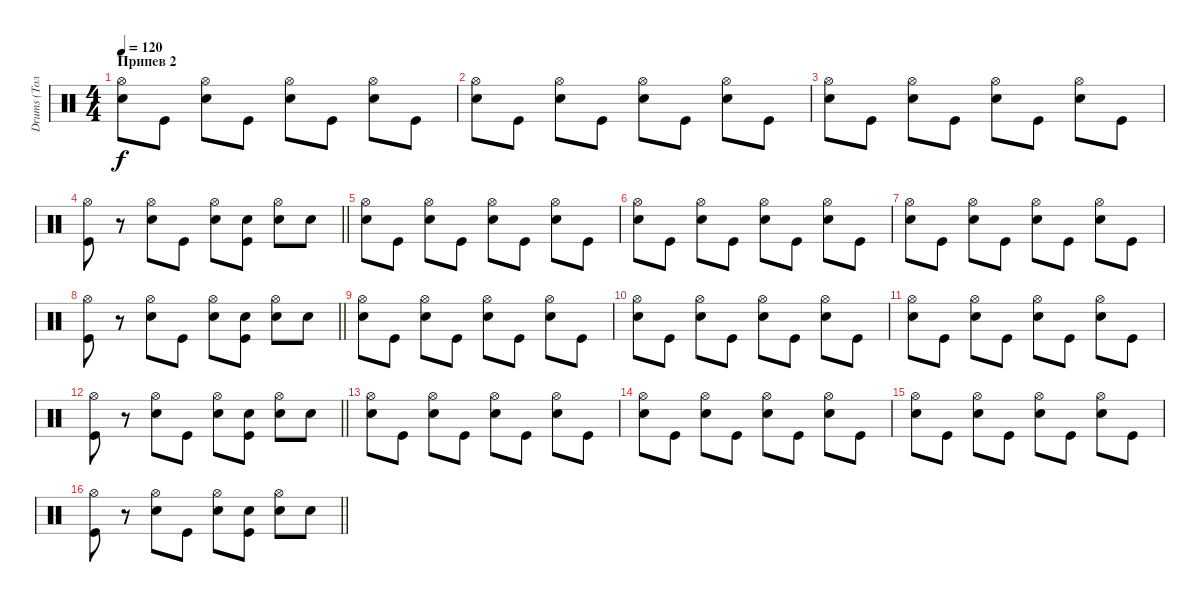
\track ("Drums (Толян)" "Drums (Тол") {instrument percussion}
\staff {score}
\articulation defaults
\ts (4 4)
\section ("" "Припев 2")
\tempo 120
\clef neutral
\ks c
("Hi-Hat (open)" "Electric Snare (hit)").8{dy f} "Kick (hit)".8 ("Hi-Hat (open)" "Electric Snare (hit)").8 "Kick (hit)".8 ("Hi-Hat (open)" "Electric Snare (hit)").8 "Kick (hit)".8 ("Hi-Hat (open)" "Electric Snare (hit)").8 "Kick (hit)".8 |
("Hi-Hat (open)" "Electric Snare (hit)").8 "Kick (hit)".8 ("Hi-Hat (open)" "Electric Snare (hit)").8 "Kick (hit)".8 ("Hi-Hat (open)" "Electric Snare (hit)").8 "Kick (hit)".8 ("Hi-Hat (open)" "Electric Snare (hit)").8 "Kick (hit)".8 |
("Hi-Hat (open)" "Electric Snare (hit)").8 "Kick (hit)".8 ("Hi-Hat (open)" "Electric Snare (hit)").8 "Kick (hit)".8 ("Hi-Hat (open)" "Electric Snare (hit)").8 "Kick (hit)".8 ("Hi-Hat (open)" "Electric Snare (hit)").8 "Kick (hit)".8 |
\barLineRight lightlight
("Hi-Hat (open)" "Kick (hit)").8 r.8 ("Hi-Hat (open)" "Electric Snare (hit)").8 "Kick (hit)".8 ("Hi-Hat (open)" "Electric Snare (hit)").8 ("Electric Snare (hit)" "Kick (hit)").8 ("Hi-Hat (open)" "Electric Snare (hit)").8 "Electric Snare (hit)".8 |
("Hi-Hat (open)" "Electric Snare (hit)").8 "Kick (hit)".8 ("Hi-Hat (open)" "Electric Snare (hit)").8 "Kick (hit)".8 ("Hi-Hat (open)" "Electric Snare (hit)").8 "Kick (hit)".8 ("Hi-Hat (open)" "Electric Snare (hit)").8 "Kick (hit)".8 |
("Hi-Hat (open)" "Electric Snare (hit)").8 "Kick (hit)".8 ("Hi-Hat (open)" "Electric Snare (hit)").8 "Kick (hit)".8 ("Hi-Hat (open)" "Electric Snare (hit)").8 "Kick (hit)".8 ("Hi-Hat (open)" "Electric Snare (hit)").8 "Kick (hit)".8 |
("Hi-Hat (open)" "Electric Snare (hit)").8 "Kick (hit)".8 ("Hi-Hat (open)" "Electric Snare (hit)").8 "Kick (hit)".8 ("Hi-Hat (open)" "Electric Snare (hit)").8 "Kick (hit)".8 ("Hi-Hat (open)" "Electric Snare (hit)").8 "Kick (hit)".8 |
\barLineRight lightlight
("Hi-Hat (open)" "Kick (hit)").8 r.8 ("Hi-Hat (open)" "Electric Snare (hit)").8 "Kick (hit)".8 ("Hi-Hat (open)" "Electric Snare (hit)").8 ("Electric Snare (hit)" "Kick (hit)").8 ("Hi-Hat (open)" "Electric Snare (hit)").8 "Electric Snare (hit)".8 |
("Hi-Hat (open)" "Electric Snare (hit)").8 "Kick (hit)".8 ("Hi-Hat (open)" "Electric Snare (hit)").8 "Kick (hit)".8 ("Hi-Hat (open)" "Electric Snare (hit)").8 "Kick (hit)".8 ("Hi-Hat (open)" "Electric Snare (hit)").8 "Kick (hit)".8 |
("Hi-Hat (open)" "Electric Snare (hit)").8 "Kick (hit)".8 ("Hi-Hat (open)" "Electric Snare (hit)").8 "Kick (hit)".8 ("Hi-Hat (open)" "Electric Snare (hit)").8 "Kick (hit)".8 ("Hi-Hat (open)" "Electric Snare (hit)").8 "Kick (hit)".8 |
("Hi-Hat (open)" "Electric Snare (hit)").8 "Kick (hit)".8 ("Hi-Hat (open)" "Electric Snare (hit)").8 "Kick (hit)".8 ("Hi-Hat (open)" "Electric Snare (hit)").8 "Kick (hit)".8 ("Hi-Hat (open)" "Electric Snare (hit)").8 "Kick (hit)".8 |
\barLineRight lightlight
("Hi-Hat (open)" "Kick (hit)").8 r.8 ("Hi-Hat (open)" "Electric Snare (hit)").8 "Kick (hit)".8 ("Hi-Hat (open)" "Electric Snare (hit)").8 ("Electric Snare (hit)" "Kick (hit)").8 ("Hi-Hat (open)" "Electric Snare (hit)").8 "Electric Snare (hit)".8 |
("Hi-Hat (open)" "Electric Snare (hit)").8 "Kick (hit)".8 ("Hi-Hat (open)" "Electric Snare (hit)").8 "Kick (hit)".8 ("Hi-Hat (open)" "Electric Snare (hit)").8 "Kick (hit)".8 ("Hi-Hat (open)" "Electric Snare (hit)").8 "Kick (hit)".8 |
("Hi-Hat (open)" "Electric Snare (hit)").8 "Kick (hit)".8 ("Hi-Hat (open)" "Electric Snare (hit)").8 "Kick (hit)".8 ("Hi-Hat (open)" "Electric Snare (hit)").8 "Kick (hit)".8 ("Hi-Hat (open)" "Electric Snare (hit)").8 "Kick (hit)".8 |
("Hi-Hat (open)" "Electric Snare (hit)").8 "Kick (hit)".8 ("Hi-Hat (open)" "Electric Snare (hit)").8 "Kick (hit)".8 ("Hi-Hat (open)" "Electric Snare (hit)").8 "Kick (hit)".8 ("Hi-Hat (open)" "Electric Snare (hit)").8 "Kick (hit)".8 |
\barLineRight lightlight
("Hi-Hat (open)" "Kick (hit)").8 r.8 ("Hi-Hat (open)" "Electric Snare (hit)").8 "Kick (hit)".8 ("Hi-Hat (open)" "Electric Snare (hit)").8 ("Electric Snare (hit)" "Kick (hit)").8 ("Hi-Hat (open)" "Electric Snare (hit)").8 "Electric Snare (hit)".8
